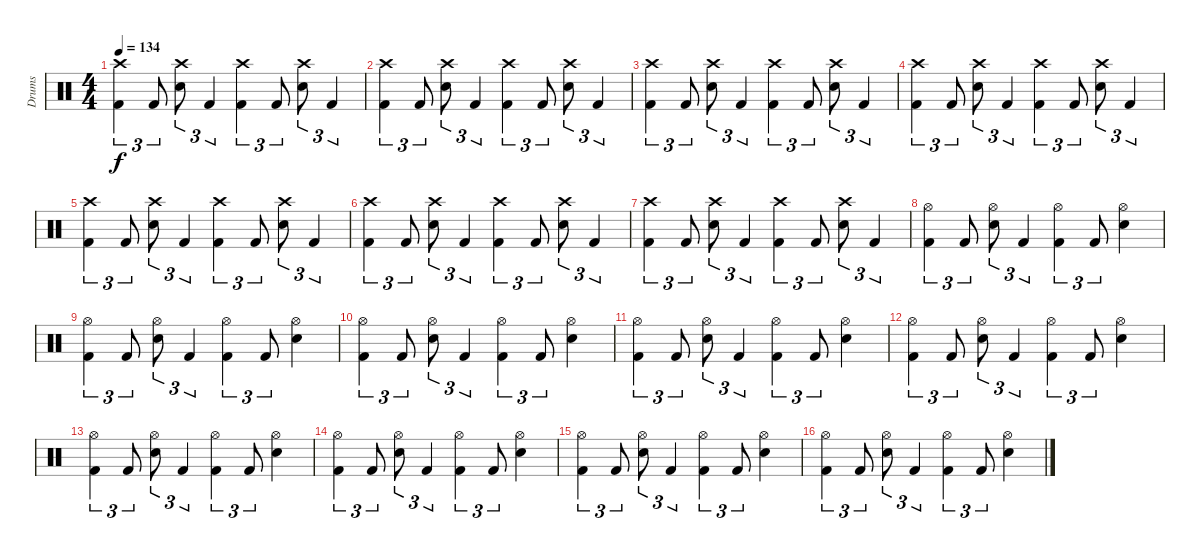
\track ("Drums" "Drums") {instrument percussion}
\staff {score}
\articulation defaults
\ts (4 4)
\tempo 134
\clef neutral
\ks c
("Crash high (hit)" "Kick (hit) 2").4{tu (3 2) dy f} "Kick (hit) 2".8{tu (3 2)} ("Crash high (hit)" "Electric Snare (hit)").8{tu (3 2)} "Kick (hit) 2".4{tu (3 2)} ("Crash high (hit)" "Kick (hit) 2").4{tu (3 2)} "Kick (hit) 2".8{tu (3 2)} ("Crash high (hit)" "Electric Snare (hit)").8{tu (3 2)} "Kick (hit) 2".4{tu (3 2)} |
("Crash high (hit)" "Kick (hit) 2").4{tu (3 2)} "Kick (hit) 2".8{tu (3 2)} ("Crash high (hit)" "Electric Snare (hit)").8{tu (3 2)} "Kick (hit) 2".4{tu (3 2)} ("Crash high (hit)" "Kick (hit) 2").4{tu (3 2)} "Kick (hit) 2".8{tu (3 2)} ("Crash high (hit)" "Electric Snare (hit)").8{tu (3 2)} "Kick (hit) 2".4{tu (3 2)} |
("Crash high (hit)" "Kick (hit) 2").4{tu (3 2)} "Kick (hit) 2".8{tu (3 2)} ("Crash high (hit)" "Electric Snare (hit)").8{tu (3 2)} "Kick (hit) 2".4{tu (3 2)} ("Crash high (hit)" "Kick (hit) 2").4{tu (3 2)} "Kick (hit) 2".8{tu (3 2)} ("Crash high (hit)" "Electric Snare (hit)").8{tu (3 2)} "Kick (hit) 2".4{tu (3 2)} |
("Crash high (hit)" "Kick (hit) 2").4{tu (3 2)} "Kick (hit) 2".8{tu (3 2)} ("Crash high (hit)" "Electric Snare (hit)").8{tu (3 2)} "Kick (hit) 2".4{tu (3 2)} ("Crash high (hit)" "Kick (hit) 2").4{tu (3 2)} "Kick (hit) 2".8{tu (3 2)} ("Crash high (hit)" "Electric Snare (hit)").8{tu (3 2)} "Kick (hit) 2".4{tu (3 2)} |
("Crash high (hit)" "Kick (hit) 2").4{tu (3 2)} "Kick (hit) 2".8{tu (3 2)} ("Crash high (hit)" "Electric Snare (hit)").8{tu (3 2)} "Kick (hit) 2".4{tu (3 2)} ("Crash high (hit)" "Kick (hit) 2").4{tu (3 2)} "Kick (hit) 2".8{tu (3 2)} ("Crash high (hit)" "Electric Snare (hit)").8{tu (3 2)} "Kick (hit) 2".4{tu (3 2)} |
("Crash high (hit)" "Kick (hit) 2").4{tu (3 2)} "Kick (hit) 2".8{tu (3 2)} ("Crash high (hit)" "Electric Snare (hit)").8{tu (3 2)} "Kick (hit) 2".4{tu (3 2)} ("Crash high (hit)" "Kick (hit) 2").4{tu (3 2)} "Kick (hit) 2".8{tu (3 2)} ("Crash high (hit)" "Electric Snare (hit)").8{tu (3 2)} "Kick (hit) 2".4{tu (3 2)} |
("Crash high (hit)" "Kick (hit) 2").4{tu (3 2)} "Kick (hit) 2".8{tu (3 2)} ("Crash high (hit)" "Electric Snare (hit)").8{tu (3 2)} "Kick (hit) 2".4{tu (3 2)} ("Crash high (hit)" "Kick (hit) 2").4{tu (3 2)} "Kick (hit) 2".8{tu (3 2)} ("Crash high (hit)" "Electric Snare (hit)").8{tu (3 2)} "Kick (hit) 2".4{tu (3 2)} |
("Hi-Hat (open)" "Kick (hit) 2").4{tu (3 2)} "Kick (hit) 2".8{tu (3 2)} ("Hi-Hat (open)" "Electric Snare (hit)").8{tu (3 2)} "Kick (hit) 2".4{tu (3 2)} ("Hi-Hat (open)" "Kick (hit) 2").4{tu (3 2)} "Kick (hit) 2".8{tu (3 2)} ("Hi-Hat (open)" "Electric Snare (hit)").4 |
("Hi-Hat (open)" "Kick (hit) 2").4{tu (3 2)} "Kick (hit) 2".8{tu (3 2)} ("Hi-Hat (open)" "Electric Snare (hit)").8{tu (3 2)} "Kick (hit) 2".4{tu (3 2)} ("Hi-Hat (open)" "Kick (hit) 2").4{tu (3 2)} "Kick (hit) 2".8{tu (3 2)} ("Hi-Hat (open)" "Electric Snare (hit)").4 |
("Hi-Hat (open)" "Kick (hit) 2").4{tu (3 2)} "Kick (hit) 2".8{tu (3 2)} ("Hi-Hat (open)" "Electric Snare (hit)").8{tu (3 2)} "Kick (hit) 2".4{tu (3 2)} ("Hi-Hat (open)" "Kick (hit) 2").4{tu (3 2)} "Kick (hit) 2".8{tu (3 2)} ("Hi-Hat (open)" "Electric Snare (hit)").4 |
("Hi-Hat (open)" "Kick (hit) 2").4{tu (3 2)} "Kick (hit) 2".8{tu (3 2)} ("Hi-Hat (open)" "Electric Snare (hit)").8{tu (3 2)} "Kick (hit) 2".4{tu (3 2)} ("Hi-Hat (open)" "Kick (hit) 2").4{tu (3 2)} "Kick (hit) 2".8{tu (3 2)} ("Hi-Hat (open)" "Electric Snare (hit)").4 |
("Hi-Hat (open)" "Kick (hit) 2").4{tu (3 2)} "Kick (hit) 2".8{tu (3 2)} ("Hi-Hat (open)" "Electric Snare (hit)").8{tu (3 2)} "Kick (hit) 2".4{tu (3 2)} ("Hi-Hat (open)" "Kick (hit) 2").4{tu (3 2)} "Kick (hit) 2".8{tu (3 2)} ("Hi-Hat (open)" "Electric Snare (hit)").4 |
("Hi-Hat (open)" "Kick (hit) 2").4{tu (3 2)} "Kick (hit) 2".8{tu (3 2)} ("Hi-Hat (open)" "Electric Snare (hit)").8{tu (3 2)} "Kick (hit) 2".4{tu (3 2)} ("Hi-Hat (open)" "Kick (hit) 2").4{tu (3 2)} "Kick (hit) 2".8{tu (3 2)} ("Hi-Hat (open)" "Electric Snare (hit)").4 |
("Hi-Hat (open)" "Kick (hit) 2").4{tu (3 2)} "Kick (hit) 2".8{tu (3 2)} ("Hi-Hat (open)" "Electric Snare (hit)").8{tu (3 2)} "Kick (hit) 2".4{tu (3 2)} ("Hi-Hat (open)" "Kick (hit) 2").4{tu (3 2)} "Kick (hit) 2".8{tu (3 2)} ("Hi-Hat (open)" "Electric Snare (hit)").4 |
("Hi-Hat (open)" "Kick (hit) 2").4{tu (3 2)} "Kick (hit) 2".8{tu (3 2)} ("Hi-Hat (open)" "Electric Snare (hit)").8{tu (3 2)} "Kick (hit) 2".4{tu (3 2)} ("Hi-Hat (open)" "Kick (hit) 2").4{tu (3 2)} "Kick (hit) 2".8{tu (3 2)} ("Hi-Hat (open)" "Electric Snare (hit)").4 |
("Hi-Hat (open)" "Kick (hit) 2").4{tu (3 2)} "Kick (hit) 2".8{tu (3 2)} ("Hi-Hat (open)" "Electric Snare (hit)").8{tu (3 2)} "Kick (hit) 2".4{tu (3 2)} ("Hi-Hat (open)" "Kick (hit) 2").4{tu (3 2)} "Kick (hit) 2".8{tu (3 2)} ("Hi-Hat (open)" "Electric Snare (hit)").4
